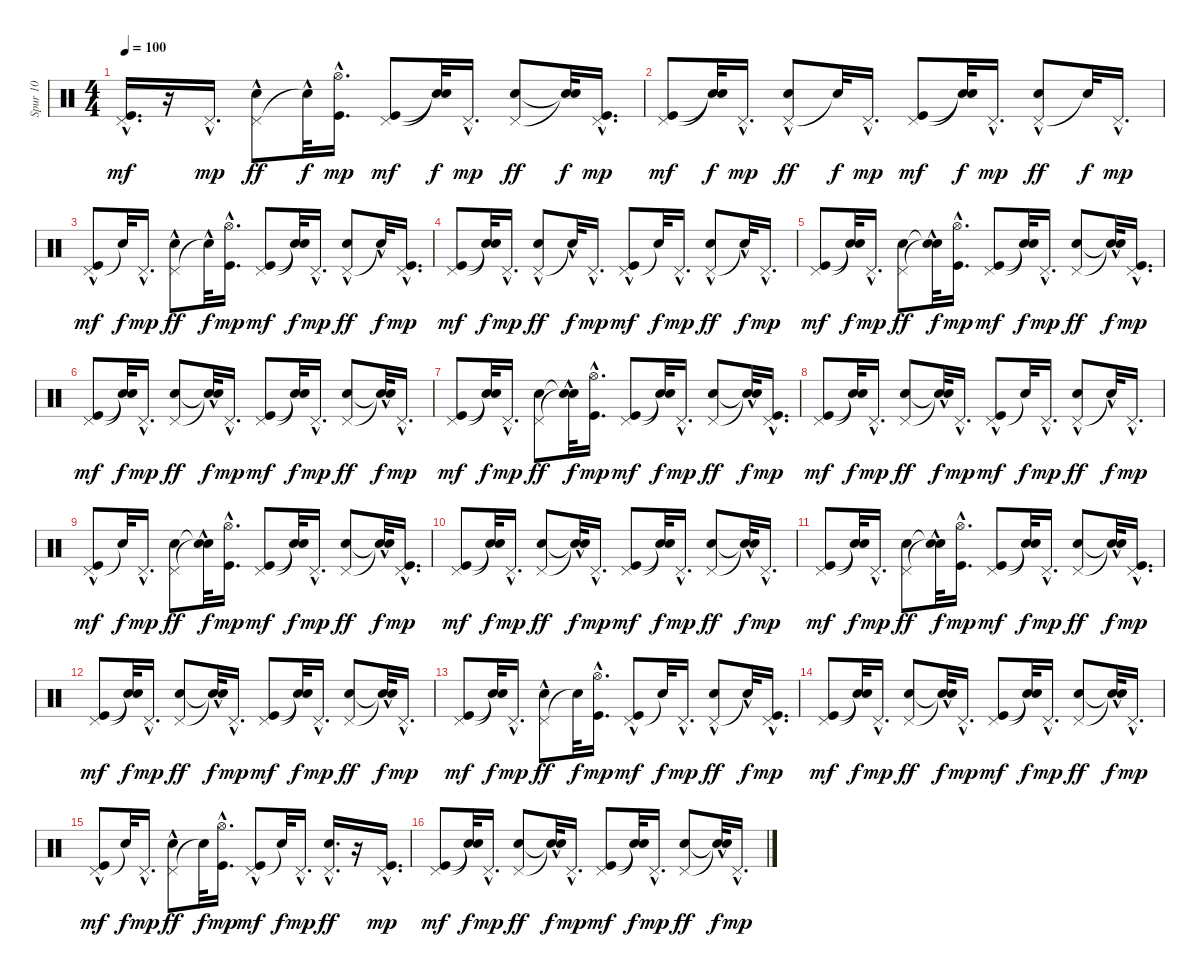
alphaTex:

\track ("Spur 10" "Spur 10") {instrument percussion}
\staff {score}
\articulation defaults
\ts (4 4)
\tempo 100
\clef neutral
\ks c
("Pedal Hi-Hat (hit)"{hac} "Kick (hit)"{hac}).16{d dy mf} r.16 "Pedal Hi-Hat (hit)"{hac}.16{d dy mp} ("Pedal Hi-Hat (hit)"{hac} "Hand Clap (hit)").8{dy ff} "Snare (hit)"{hac t}.32{dy f} ("Hi-Hat (open)"{hac} "Kick (hit)"{hac}).16{d dy mp} ("Pedal Hi-Hat (hit)" "Kick (hit)").8{dy mf} ("Snare (hit)"{t} "Snare (hit)"{t}).32{dy f} "Pedal Hi-Hat (hit)"{hac}.16{d dy mp} ("Pedal Hi-Hat (hit)" "Hand Clap (hit)").8{dy ff} ("Snare (hit)"{t} "Snare (hit)"{t}).32{dy f} ("Pedal Hi-Hat (hit)"{hac} "Kick (hit)"{hac}).16{d dy mp} |
("Pedal Hi-Hat (hit)" "Kick (hit)").8{dy mf} ("Snare (hit)"{t} "Snare (hit)"{t}).32{dy f} "Pedal Hi-Hat (hit)"{hac}.16{d dy mp} ("Pedal Hi-Hat (hit)" "Hand Clap (hit)"{hac}).8{dy ff} "Snare (hit)"{t}.32{dy f} "Pedal Hi-Hat (hit)"{hac}.16{d dy mp} ("Pedal Hi-Hat (hit)" "Kick (hit)").8{dy mf} ("Snare (hit)"{t} "Snare (hit)"{t}).32{dy f} "Pedal Hi-Hat (hit)"{hac}.16{d dy mp} ("Pedal Hi-Hat (hit)" "Hand Clap (hit)"{hac}).8{dy ff} "Snare (hit)"{t}.32{dy f} "Pedal Hi-Hat (hit)"{hac}.16{d dy mp} |
("Pedal Hi-Hat (hit)" "Kick (hit)"{hac}).8{dy mf} "Snare (hit)"{t}.32{dy f} "Pedal Hi-Hat (hit)"{hac}.16{d dy mp} ("Pedal Hi-Hat (hit)"{hac} "Hand Clap (hit)").8{dy ff} "Snare (hit)"{hac t}.32{dy f} ("Hi-Hat (open)" "Kick (hit)"{hac}).16{d dy mp} ("Pedal Hi-Hat (hit)" "Kick (hit)").8{dy mf} ("Snare (hit)"{t} "Snare (hit)"{t}).32{dy f} "Pedal Hi-Hat (hit)"{hac}.16{d dy mp} ("Pedal Hi-Hat (hit)"{hac} "Hand Clap (hit)").8{dy ff} "Snare (hit)"{hac t}.32{dy f} ("Pedal Hi-Hat (hit)"{hac} "Kick (hit)"{hac}).16{d dy mp} |
("Pedal Hi-Hat (hit)" "Kick (hit)").8{dy mf} ("Snare (hit)"{t} "Snare (hit)"{t}).32{dy f} "Pedal Hi-Hat (hit)"{hac}.16{d dy mp} ("Pedal Hi-Hat (hit)"{hac} "Hand Clap (hit)").8{dy ff} "Snare (hit)"{hac t}.32{dy f} "Pedal Hi-Hat (hit)"{hac}.16{d dy mp} ("Pedal Hi-Hat (hit)"{hac} "Kick (hit)").8{dy mf} "Snare (hit)"{t}.32{dy f} "Pedal Hi-Hat (hit)"{hac}.16{d dy mp} ("Pedal Hi-Hat (hit)"{hac} "Hand Clap (hit)").8{dy ff} "Snare (hit)"{hac t}.32{dy f} "Pedal Hi-Hat (hit)"{hac}.16{d dy mp} |
("Pedal Hi-Hat (hit)" "Kick (hit)").8{dy mf} ("Snare (hit)"{t} "Snare (hit)"{t}).32{dy f} "Pedal Hi-Hat (hit)"{hac}.16{d dy mp} ("Pedal Hi-Hat (hit)" "Hand Clap (hit)").8{dy ff} ("Snare (hit)"{t} "Snare (hit)"{hac t}).32{dy f} ("Hi-Hat (open)" "Kick (hit)"{hac}).16{d dy mp} ("Pedal Hi-Hat (hit)" "Kick (hit)").8{dy mf} ("Snare (hit)"{t} "Snare (hit)"{t}).32{dy f} "Pedal Hi-Hat (hit)"{hac}.16{d dy mp} ("Pedal Hi-Hat (hit)" "Hand Clap (hit)").8{dy ff} ("Snare (hit)"{t} "Snare (hit)"{hac t}).32{dy f} ("Pedal Hi-Hat (hit)"{hac} "Kick (hit)"{hac}).16{d dy mp} |
("Pedal Hi-Hat (hit)" "Kick (hit)").8{dy mf} ("Snare (hit)"{t} "Snare (hit)"{t}).32{dy f} "Pedal Hi-Hat (hit)"{hac}.16{d dy mp} ("Pedal Hi-Hat (hit)" "Hand Clap (hit)").8{dy ff} ("Snare (hit)"{t} "Snare (hit)"{hac t}).32{dy f} "Pedal Hi-Hat (hit)"{hac}.16{d dy mp} ("Pedal Hi-Hat (hit)" "Kick (hit)").8{dy mf} ("Snare (hit)"{t} "Snare (hit)"{t}).32{dy f} "Pedal Hi-Hat (hit)"{hac}.16{d dy mp} ("Pedal Hi-Hat (hit)" "Hand Clap (hit)").8{dy ff} ("Snare (hit)"{t} "Snare (hit)"{hac t}).32{dy f} "Pedal Hi-Hat (hit)"{hac}.16{d dy mp} |
("Pedal Hi-Hat (hit)" "Kick (hit)").8{dy mf} ("Snare (hit)"{t} "Snare (hit)"{t}).32{dy f} "Pedal Hi-Hat (hit)"{hac}.16{d dy mp} ("Pedal Hi-Hat (hit)" "Hand Clap (hit)").8{dy ff} ("Snare (hit)"{t} "Snare (hit)"{hac t}).32{dy f} ("Hi-Hat (open)" "Kick (hit)"{hac}).16{d dy mp} ("Pedal Hi-Hat (hit)" "Kick (hit)").8{dy mf} ("Snare (hit)"{t} "Snare (hit)"{t}).32{dy f} "Pedal Hi-Hat (hit)"{hac}.16{d dy mp} ("Pedal Hi-Hat (hit)" "Hand Clap (hit)").8{dy ff} ("Snare (hit)"{t} "Snare (hit)"{hac t}).32{dy f} ("Pedal Hi-Hat (hit)"{hac} "Kick (hit)"{hac}).16{d dy mp} |
("Pedal Hi-Hat (hit)" "Kick (hit)").8{dy mf} ("Snare (hit)"{t} "Snare (hit)"{t}).32{dy f} "Pedal Hi-Hat (hit)"{hac}.16{d dy mp} ("Pedal Hi-Hat (hit)" "Hand Clap (hit)").8{dy ff} ("Snare (hit)"{t} "Snare (hit)"{hac t}).32{dy f} "Pedal Hi-Hat (hit)"{hac}.16{d dy mp} ("Pedal Hi-Hat (hit)"{hac} "Kick (hit)").8{dy mf} "Snare (hit)"{t}.32{dy f} "Pedal Hi-Hat (hit)"{hac}.16{d dy mp} ("Pedal Hi-Hat (hit)"{hac} "Hand Clap (hit)").8{dy ff} "Snare (hit)"{hac t}.32{dy f} "Pedal Hi-Hat (hit)"{hac}.16{d dy mp} |
("Pedal Hi-Hat (hit)"{hac} "Kick (hit)").8{dy mf} "Snare (hit)"{t}.32{dy f} "Pedal Hi-Hat (hit)"{hac}.16{d dy mp} ("Pedal Hi-Hat (hit)" "Hand Clap (hit)").8{dy ff} ("Snare (hit)"{t} "Snare (hit)"{hac t}).32{dy f} ("Hi-Hat (open)" "Kick (hit)"{hac}).16{d dy mp} ("Pedal Hi-Hat (hit)" "Kick (hit)").8{dy mf} ("Snare (hit)"{t} "Snare (hit)"{t}).32{dy f} "Pedal Hi-Hat (hit)"{hac}.16{d dy mp} ("Pedal Hi-Hat (hit)" "Hand Clap (hit)").8{dy ff} ("Snare (hit)"{t} "Snare (hit)"{hac t}).32{dy f} ("Pedal Hi-Hat (hit)"{hac} "Kick (hit)"{hac}).16{d dy mp} |
("Pedal Hi-Hat (hit)" "Kick (hit)").8{dy mf} ("Snare (hit)"{t} "Snare (hit)"{t}).32{dy f} "Pedal Hi-Hat (hit)"{hac}.16{d dy mp} ("Pedal Hi-Hat (hit)" "Hand Clap (hit)").8{dy ff} ("Snare (hit)"{t} "Snare (hit)"{hac t}).32{dy f} "Pedal Hi-Hat (hit)"{hac}.16{d dy mp} ("Pedal Hi-Hat (hit)" "Kick (hit)").8{dy mf} ("Snare (hit)"{t} "Snare (hit)"{t}).32{dy f} "Pedal Hi-Hat (hit)"{hac}.16{d dy mp} ("Pedal Hi-Hat (hit)" "Hand Clap (hit)").8{dy ff} ("Snare (hit)"{t} "Snare (hit)"{hac t}).32{dy f} "Pedal Hi-Hat (hit)"{hac}.16{d dy mp} |
("Pedal Hi-Hat (hit)" "Kick (hit)").8{dy mf} ("Snare (hit)"{t} "Snare (hit)"{t}).32{dy f} "Pedal Hi-Hat (hit)"{hac}.16{d dy mp} ("Pedal Hi-Hat (hit)" "Hand Clap (hit)").8{dy ff} ("Snare (hit)"{t} "Snare (hit)"{hac t}).32{dy f} ("Hi-Hat (open)" "Kick (hit)"{hac}).16{d dy mp} ("Pedal Hi-Hat (hit)" "Kick (hit)").8{dy mf} ("Snare (hit)"{t} "Snare (hit)"{t}).32{dy f} "Pedal Hi-Hat (hit)"{hac}.16{d dy mp} ("Pedal Hi-Hat (hit)" "Hand Clap (hit)").8{dy ff} ("Snare (hit)"{t} "Snare (hit)"{hac t}).32{dy f} ("Pedal Hi-Hat (hit)"{hac} "Kick (hit)"{hac}).16{d dy mp} |
("Pedal Hi-Hat (hit)" "Kick (hit)").8{dy mf} ("Snare (hit)"{t} "Snare (hit)"{t}).32{dy f} "Pedal Hi-Hat (hit)"{hac}.16{d dy mp} ("Pedal Hi-Hat (hit)" "Hand Clap (hit)").8{dy ff} ("Snare (hit)"{t} "Snare (hit)"{hac t}).32{dy f} "Pedal Hi-Hat (hit)"{hac}.16{d dy mp} ("Pedal Hi-Hat (hit)" "Kick (hit)").8{dy mf} ("Snare (hit)"{t} "Snare (hit)"{t}).32{dy f} "Pedal Hi-Hat (hit)"{hac}.16{d dy mp} ("Pedal Hi-Hat (hit)" "Hand Clap (hit)").8{dy ff} ("Snare (hit)"{t} "Snare (hit)"{hac t}).32{dy f} "Pedal Hi-Hat (hit)"{hac}.16{d dy mp} |
("Pedal Hi-Hat (hit)" "Kick (hit)").8{dy mf} ("Snare (hit)"{t} "Snare (hit)"{t}).32{dy f} "Pedal Hi-Hat (hit)"{hac}.16{d dy mp} ("Pedal Hi-Hat (hit)"{hac} "Hand Clap (hit)").8{dy ff} "Snare (hit)"{t}.32{dy f} ("Hi-Hat (open)" "Kick (hit)"{hac}).16{d dy mp} ("Pedal Hi-Hat (hit)"{hac} "Kick (hit)").8{dy mf} "Snare (hit)"{t}.32{dy f} "Pedal Hi-Hat (hit)"{hac}.16{d dy mp} ("Pedal Hi-Hat (hit)"{hac} "Hand Clap (hit)").8{dy ff} "Snare (hit)"{hac t}.32{dy f} ("Pedal Hi-Hat (hit)"{hac} "Kick (hit)"{hac}).16{d dy mp} |
("Pedal Hi-Hat (hit)" "Kick (hit)").8{dy mf} ("Snare (hit)"{t} "Snare (hit)"{t}).32{dy f} "Pedal Hi-Hat (hit)"{hac}.16{d dy mp} ("Pedal Hi-Hat (hit)" "Hand Clap (hit)").8{dy ff} ("Snare (hit)"{t} "Snare (hit)"{hac t}).32{dy f} "Pedal Hi-Hat (hit)"{hac}.16{d dy mp} ("Pedal Hi-Hat (hit)" "Kick (hit)").8{dy mf} ("Snare (hit)"{t} "Snare (hit)"{t}).32{dy f} "Pedal Hi-Hat (hit)"{hac}.16{d dy mp} ("Pedal Hi-Hat (hit)" "Hand Clap (hit)").8{dy ff} ("Snare (hit)"{t} "Snare (hit)"{hac t}).32{dy f} "Pedal Hi-Hat (hit)"{hac}.16{d dy mp} |
("Pedal Hi-Hat (hit)" "Kick (hit)"{hac}).8{dy mf} "Snare (hit)"{t}.32{dy f} "Pedal Hi-Hat (hit)"{hac}.16{d dy mp} ("Pedal Hi-Hat (hit)"{hac} "Hand Clap (hit)").8{dy ff} "Snare (hit)"{t}.32{dy f} ("Hi-Hat (open)" "Kick (hit)"{hac}).16{d dy mp} ("Pedal Hi-Hat (hit)" "Kick (hit)"{hac}).8{dy mf} "Snare (hit)"{t}.32{dy f} "Pedal Hi-Hat (hit)"{hac}.16{d dy mp} ("Pedal Hi-Hat (hit)"{hac} "Hand Clap (hit)"{hac}).16{d dy ff} r.16 ("Pedal Hi-Hat (hit)"{hac} "Kick (hit)"{hac}).16{d dy mp} |
("Pedal Hi-Hat (hit)" "Kick (hit)").8{dy mf} ("Snare (hit)"{t} "Snare (hit)"{t}).32{dy f} "Pedal Hi-Hat (hit)"{hac}.16{d dy mp} ("Pedal Hi-Hat (hit)" "Hand Clap (hit)").8{dy ff} ("Snare (hit)"{t} "Snare (hit)"{hac t}).32{dy f} "Pedal Hi-Hat (hit)"{hac}.16{d dy mp} ("Pedal Hi-Hat (hit)" "Kick (hit)").8{dy mf} ("Snare (hit)"{t} "Snare (hit)"{t}).32{dy f} "Pedal Hi-Hat (hit)"{hac}.16{d dy mp} ("Pedal Hi-Hat (hit)" "Hand Clap (hit)").8{dy ff} ("Snare (hit)"{t} "Snare (hit)"{hac t}).32{dy f} "Pedal Hi-Hat (hit)"{hac}.16{d dy mp}
